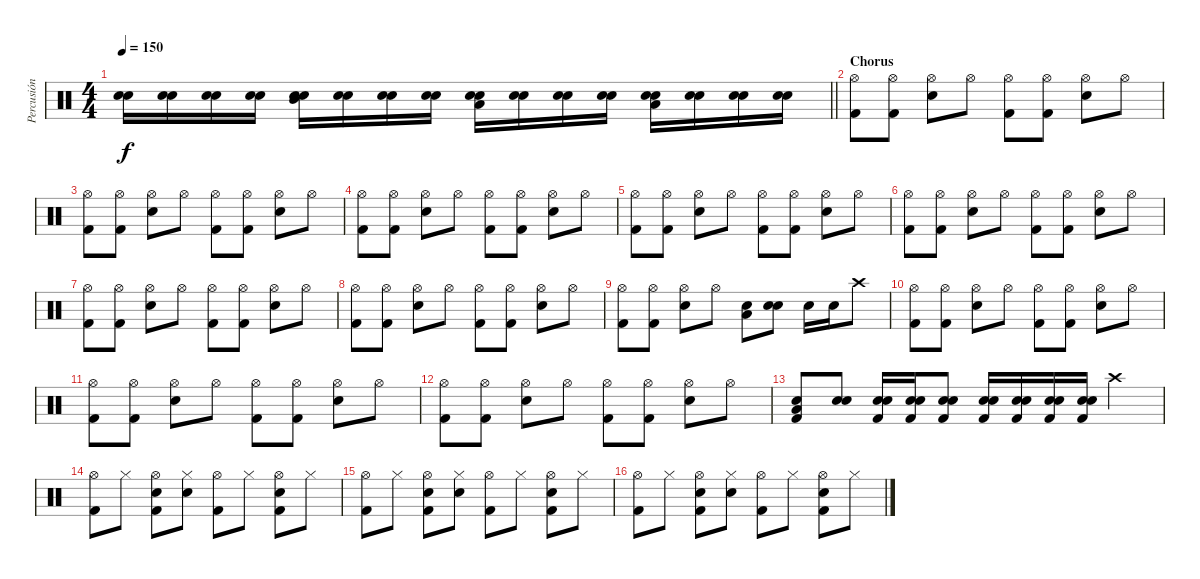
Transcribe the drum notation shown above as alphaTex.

\track ("Percusión" "Percusión") {instrument percussion}
\staff {score}
\articulation defaults
\ts (4 4)
\tempo 150
\clef neutral
\barLineRight lightlight
\ks c
("Electric Snare (hit)" "Snare (hit) 2").16{dy f} ("Electric Snare (hit)" "Snare (hit) 2").16 ("Electric Snare (hit)" "Snare (hit) 2").16 ("Electric Snare (hit)" "Snare (hit) 2").16 ("Mid Tom (hit)" "Electric Snare (hit)" "Snare (hit) 2").16 ("Electric Snare (hit)" "Snare (hit) 2").16 ("Electric Snare (hit)" "Snare (hit) 2").16 ("Electric Snare (hit)" "Snare (hit) 2").16 ("Low Tom (hit)" "Electric Snare (hit)" "Snare (hit) 2").16 ("Electric Snare (hit)" "Snare (hit) 2").16 ("Electric Snare (hit)" "Snare (hit) 2").16 ("Electric Snare (hit)" "Snare (hit) 2").16 ("Low Floor Tom (hit)" "Electric Snare (hit)" "Snare (hit) 2").16 ("Electric Snare (hit)" "Snare (hit) 2").16 ("Electric Snare (hit)" "Snare (hit) 2").16 ("Electric Snare (hit)" "Snare (hit) 2").16 |
\section ("" "Chorus")
("Hi-Hat (open)" "Kick (hit) 2").8 ("Hi-Hat (open)" "Kick (hit) 2").8 ("Hi-Hat (open)" "Snare (hit) 2").8 "Hi-Hat (open)".8 ("Hi-Hat (open)" "Kick (hit) 2").8 ("Hi-Hat (open)" "Kick (hit) 2").8 ("Hi-Hat (open)" "Snare (hit) 2").8 "Hi-Hat (open)".8 |
("Hi-Hat (open)" "Kick (hit) 2").8 ("Hi-Hat (open)" "Kick (hit) 2").8 ("Hi-Hat (open)" "Snare (hit) 2").8 "Hi-Hat (open)".8 ("Hi-Hat (open)" "Kick (hit) 2").8 ("Hi-Hat (open)" "Kick (hit) 2").8 ("Hi-Hat (open)" "Snare (hit) 2").8 "Hi-Hat (open)".8 |
("Hi-Hat (open)" "Kick (hit) 2").8 ("Hi-Hat (open)" "Kick (hit) 2").8 ("Hi-Hat (open)" "Snare (hit) 2").8 "Hi-Hat (open)".8 ("Hi-Hat (open)" "Kick (hit) 2").8 ("Hi-Hat (open)" "Kick (hit) 2").8 ("Hi-Hat (open)" "Snare (hit) 2").8 "Hi-Hat (open)".8 |
("Hi-Hat (open)" "Kick (hit) 2").8 ("Hi-Hat (open)" "Kick (hit) 2").8 ("Hi-Hat (open)" "Snare (hit) 2").8 "Hi-Hat (open)".8 ("Hi-Hat (open)" "Kick (hit) 2").8 ("Hi-Hat (open)" "Kick (hit) 2").8 ("Hi-Hat (open)" "Snare (hit) 2").8 "Hi-Hat (open)".8 |
("Hi-Hat (open)" "Kick (hit) 2").8 ("Hi-Hat (open)" "Kick (hit) 2").8 ("Hi-Hat (open)" "Snare (hit) 2").8 "Hi-Hat (open)".8 ("Hi-Hat (open)" "Kick (hit) 2").8 ("Hi-Hat (open)" "Kick (hit) 2").8 ("Hi-Hat (open)" "Snare (hit) 2").8 "Hi-Hat (open)".8 |
("Hi-Hat (open)" "Kick (hit) 2").8 ("Hi-Hat (open)" "Kick (hit) 2").8 ("Hi-Hat (open)" "Snare (hit) 2").8 "Hi-Hat (open)".8 ("Hi-Hat (open)" "Kick (hit) 2").8 ("Hi-Hat (open)" "Kick (hit) 2").8 ("Hi-Hat (open)" "Snare (hit) 2").8 "Hi-Hat (open)".8 |
("Hi-Hat (open)" "Kick (hit) 2").8 ("Hi-Hat (open)" "Kick (hit) 2").8 ("Hi-Hat (open)" "Snare (hit) 2").8 "Hi-Hat (open)".8 ("Hi-Hat (open)" "Kick (hit) 2").8 ("Hi-Hat (open)" "Kick (hit) 2").8 ("Hi-Hat (open)" "Snare (hit) 2").8 "Hi-Hat (open)".8 |
("Hi-Hat (open)" "Kick (hit) 2").8 ("Hi-Hat (open)" "Kick (hit) 2").8 ("Hi-Hat (open)" "Snare (hit) 2").8 "Hi-Hat (open)".8 ("Snare (hit) 2" "Low Floor Tom (hit)").8 ("Electric Snare (hit)" "Snare (hit) 2").8 "Electric Snare (hit)".16 "Electric Snare (hit)".16 "Crash high (hit)".8 |
("Hi-Hat (open)" "Kick (hit) 2").8 ("Hi-Hat (open)" "Kick (hit) 2").8 ("Hi-Hat (open)" "Snare (hit) 2").8 "Hi-Hat (open)".8 ("Hi-Hat (open)" "Kick (hit) 2").8 ("Hi-Hat (open)" "Kick (hit) 2").8 ("Hi-Hat (open)" "Snare (hit) 2").8 "Hi-Hat (open)".8 |
("Hi-Hat (open)" "Kick (hit) 2").8 ("Hi-Hat (open)" "Kick (hit) 2").8 ("Hi-Hat (open)" "Snare (hit) 2").8 "Hi-Hat (open)".8 ("Hi-Hat (open)" "Kick (hit) 2").8 ("Hi-Hat (open)" "Kick (hit) 2").8 ("Hi-Hat (open)" "Snare (hit) 2").8 "Hi-Hat (open)".8 |
("Hi-Hat (open)" "Kick (hit) 2").8 ("Hi-Hat (open)" "Kick (hit) 2").8 ("Hi-Hat (open)" "Snare (hit) 2").8 "Hi-Hat (open)".8 ("Hi-Hat (open)" "Kick (hit) 2").8 ("Hi-Hat (open)" "Kick (hit) 2").8 ("Hi-Hat (open)" "Snare (hit) 2").8 "Hi-Hat (open)".8 |
("Snare (hit) 2" "Low Floor Tom (hit)" "Kick (hit) 2").8 ("Electric Snare (hit)" "Snare (hit) 2").8 ("Electric Snare (hit)" "Snare (hit) 2" "Kick (hit) 2").16 ("Electric Snare (hit)" "Snare (hit) 2" "Kick (hit) 2").16 ("Electric Snare (hit)" "Snare (hit) 2" "Kick (hit) 2").8 ("Electric Snare (hit)" "Snare (hit) 2" "Kick (hit) 2").16 ("Electric Snare (hit)" "Snare (hit) 2" "Kick (hit) 2").16 ("Electric Snare (hit)" "Snare (hit) 2" "Kick (hit) 2").16 ("Electric Snare (hit)" "Snare (hit) 2" "Kick (hit) 2").16 "Crash high (hit)".4 |
("Hi-Hat (open)" "Kick (hit) 2").8 "Hi-Hat (closed)".8 ("Hi-Hat (open)" "Hand Clap (hit)" "Kick (hit) 2").8 ("Hi-Hat (closed)" "Hand Clap (hit)").8 ("Hi-Hat (open)" "Kick (hit) 2").8 "Hi-Hat (closed)".8 ("Hi-Hat (open)" "Hand Clap (hit)" "Kick (hit) 2").8 "Hi-Hat (closed)".8 |
("Hi-Hat (open)" "Kick (hit) 2").8 "Hi-Hat (closed)".8 ("Hi-Hat (open)" "Hand Clap (hit)" "Kick (hit) 2").8 ("Hi-Hat (closed)" "Hand Clap (hit)").8 ("Hi-Hat (open)" "Kick (hit) 2").8 "Hi-Hat (closed)".8 ("Hi-Hat (open)" "Hand Clap (hit)" "Kick (hit) 2").8 "Hi-Hat (closed)".8 |
("Hi-Hat (open)" "Kick (hit) 2").8 "Hi-Hat (closed)".8 ("Hi-Hat (open)" "Hand Clap (hit)" "Kick (hit) 2").8 ("Hi-Hat (closed)" "Hand Clap (hit)").8 ("Hi-Hat (open)" "Kick (hit) 2").8 "Hi-Hat (closed)".8 ("Hi-Hat (open)" "Hand Clap (hit)" "Kick (hit) 2").8 "Hi-Hat (closed)".8
